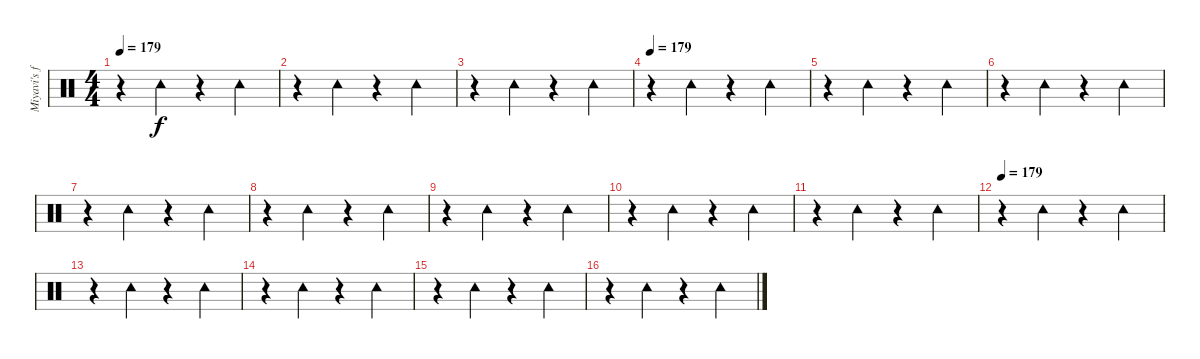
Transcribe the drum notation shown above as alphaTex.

\track ("Miyavi's foot" "Miyavi's f") {instrument percussion}
\staff {score}
\articulation defaults
\ts (4 4)
\tempo 179
\clef neutral
\ks c
r.4{dy f} "Tambourine (hit)".4 r.4 "Tambourine (hit)".4 |
r.4 "Tambourine (hit)".4 r.4 "Tambourine (hit)".4 |
r.4 "Tambourine (hit)".4 r.4 "Tambourine (hit)".4 |
\tempo 179
r.4 "Tambourine (hit)".4 r.4 "Tambourine (hit)".4 |
r.4 "Tambourine (hit)".4 r.4 "Tambourine (hit)".4 |
r.4 "Tambourine (hit)".4 r.4 "Tambourine (hit)".4 |
r.4 "Tambourine (hit)".4 r.4 "Tambourine (hit)".4 |
r.4 "Tambourine (hit)".4 r.4 "Tambourine (hit)".4 |
r.4 "Tambourine (hit)".4 r.4 "Tambourine (hit)".4 |
r.4 "Tambourine (hit)".4 r.4 "Tambourine (hit)".4 |
r.4 "Tambourine (hit)".4 r.4 "Tambourine (hit)".4 |
\tempo 179
r.4 "Tambourine (hit)".4 r.4 "Tambourine (hit)".4 |
r.4 "Tambourine (hit)".4 r.4 "Tambourine (hit)".4 |
r.4 "Tambourine (hit)".4 r.4 "Tambourine (hit)".4 |
r.4 "Tambourine (hit)".4 r.4 "Tambourine (hit)".4 |
r.4 "Tambourine (hit)".4 r.4 "Tambourine (hit)".4
